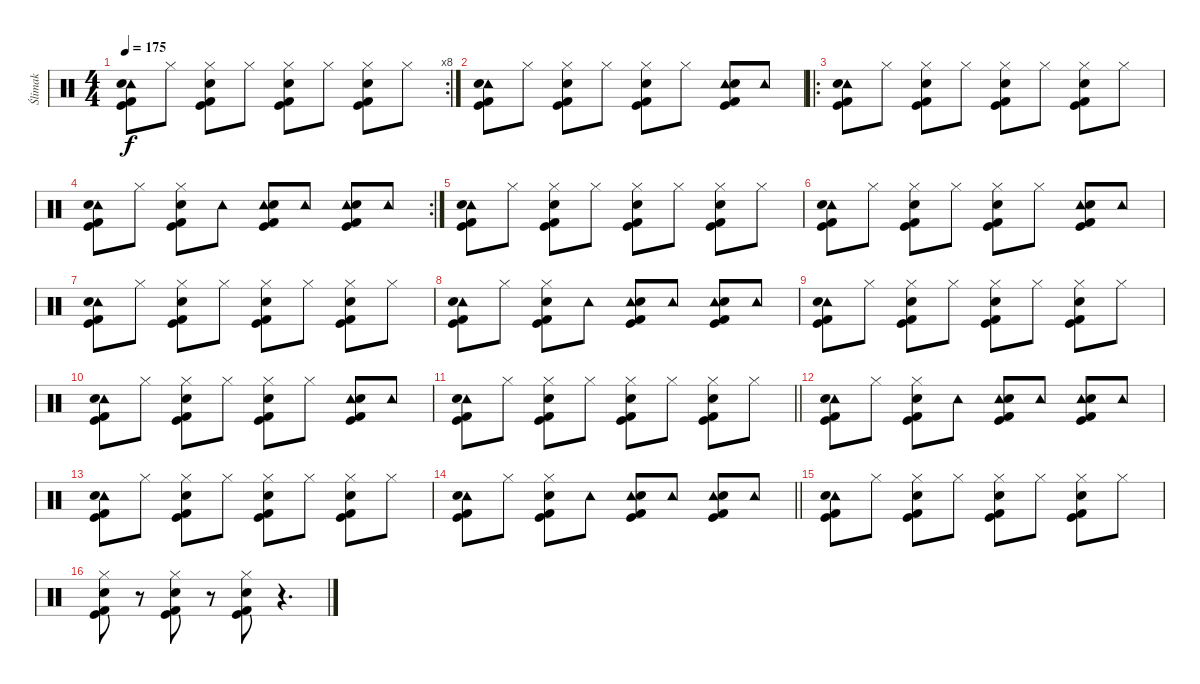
\track ("Ślimak" "Ślimak") {instrument percussion}
\staff {score}
\articulation defaults
\rc 8
\ts (4 4)
\tempo 175
\clef neutral
\ks c
("Tambourine (hit)" "Electric Snare (hit)" "Kick (hit) 2" "Kick (hit)").8{dy f} "Hi-Hat (closed)".8 ("Hi-Hat (closed)" "Electric Snare (hit)" "Kick (hit) 2" "Kick (hit)").8 "Hi-Hat (closed)".8 ("Hi-Hat (closed)" "Electric Snare (hit)" "Kick (hit) 2" "Kick (hit)").8 "Hi-Hat (closed)".8 ("Hi-Hat (closed)" "Electric Snare (hit)" "Kick (hit) 2" "Kick (hit)").8 "Hi-Hat (closed)".8 |
("Tambourine (hit)" "Electric Snare (hit)" "Kick (hit) 2" "Kick (hit)").8 "Hi-Hat (closed)".8 ("Hi-Hat (closed)" "Electric Snare (hit)" "Kick (hit) 2" "Kick (hit)").8 "Hi-Hat (closed)".8 ("Hi-Hat (closed)" "Electric Snare (hit)" "Kick (hit) 2" "Kick (hit)").8 "Hi-Hat (closed)".8 ("Tambourine (hit)" "Electric Snare (hit)" "Kick (hit) 2" "Kick (hit)").8 "Tambourine (hit)".8 |
\ro
("Tambourine (hit)" "Electric Snare (hit)" "Kick (hit) 2" "Kick (hit)").8 "Hi-Hat (closed)".8 ("Hi-Hat (closed)" "Electric Snare (hit)" "Kick (hit) 2" "Kick (hit)").8 "Hi-Hat (closed)".8 ("Hi-Hat (closed)" "Electric Snare (hit)" "Kick (hit) 2" "Kick (hit)").8 "Hi-Hat (closed)".8 ("Hi-Hat (closed)" "Electric Snare (hit)" "Kick (hit) 2" "Kick (hit)").8 "Hi-Hat (closed)".8 |
\rc 2
("Tambourine (hit)" "Electric Snare (hit)" "Kick (hit) 2" "Kick (hit)").8 "Hi-Hat (closed)".8 ("Hi-Hat (closed)" "Electric Snare (hit)" "Kick (hit) 2" "Kick (hit)").8 "Tambourine (hit)".8 ("Tambourine (hit)" "Electric Snare (hit)" "Kick (hit) 2" "Kick (hit)").8 "Tambourine (hit)".8 ("Tambourine (hit)" "Electric Snare (hit)" "Kick (hit) 2" "Kick (hit)").8 "Tambourine (hit)".8 |
("Tambourine (hit)" "Electric Snare (hit)" "Kick (hit) 2" "Kick (hit)").8 "Hi-Hat (closed)".8 ("Hi-Hat (closed)" "Electric Snare (hit)" "Kick (hit) 2" "Kick (hit)").8 "Hi-Hat (closed)".8 ("Hi-Hat (closed)" "Electric Snare (hit)" "Kick (hit) 2" "Kick (hit)").8 "Hi-Hat (closed)".8 ("Hi-Hat (closed)" "Electric Snare (hit)" "Kick (hit) 2" "Kick (hit)").8 "Hi-Hat (closed)".8 |
("Tambourine (hit)" "Electric Snare (hit)" "Kick (hit) 2" "Kick (hit)").8 "Hi-Hat (closed)".8 ("Hi-Hat (closed)" "Electric Snare (hit)" "Kick (hit) 2" "Kick (hit)").8 "Hi-Hat (closed)".8 ("Hi-Hat (closed)" "Electric Snare (hit)" "Kick (hit) 2" "Kick (hit)").8 "Hi-Hat (closed)".8 ("Tambourine (hit)" "Electric Snare (hit)" "Kick (hit) 2" "Kick (hit)").8 "Tambourine (hit)".8 |
("Tambourine (hit)" "Electric Snare (hit)" "Kick (hit) 2" "Kick (hit)").8 "Hi-Hat (closed)".8 ("Hi-Hat (closed)" "Electric Snare (hit)" "Kick (hit) 2" "Kick (hit)").8 "Hi-Hat (closed)".8 ("Hi-Hat (closed)" "Electric Snare (hit)" "Kick (hit) 2" "Kick (hit)").8 "Hi-Hat (closed)".8 ("Hi-Hat (closed)" "Electric Snare (hit)" "Kick (hit) 2" "Kick (hit)").8 "Hi-Hat (closed)".8 |
("Tambourine (hit)" "Electric Snare (hit)" "Kick (hit) 2" "Kick (hit)").8 "Hi-Hat (closed)".8 ("Hi-Hat (closed)" "Electric Snare (hit)" "Kick (hit) 2" "Kick (hit)").8 "Tambourine (hit)".8 ("Tambourine (hit)" "Electric Snare (hit)" "Kick (hit) 2" "Kick (hit)").8 "Tambourine (hit)".8 ("Tambourine (hit)" "Electric Snare (hit)" "Kick (hit) 2" "Kick (hit)").8 "Tambourine (hit)".8 |
("Tambourine (hit)" "Electric Snare (hit)" "Kick (hit) 2" "Kick (hit)").8 "Hi-Hat (closed)".8 ("Hi-Hat (closed)" "Electric Snare (hit)" "Kick (hit) 2" "Kick (hit)").8 "Hi-Hat (closed)".8 ("Hi-Hat (closed)" "Electric Snare (hit)" "Kick (hit) 2" "Kick (hit)").8 "Hi-Hat (closed)".8 ("Hi-Hat (closed)" "Electric Snare (hit)" "Kick (hit) 2" "Kick (hit)").8 "Hi-Hat (closed)".8 |
("Tambourine (hit)" "Electric Snare (hit)" "Kick (hit) 2" "Kick (hit)").8 "Hi-Hat (closed)".8 ("Hi-Hat (closed)" "Electric Snare (hit)" "Kick (hit) 2" "Kick (hit)").8 "Hi-Hat (closed)".8 ("Hi-Hat (closed)" "Electric Snare (hit)" "Kick (hit) 2" "Kick (hit)").8 "Hi-Hat (closed)".8 ("Tambourine (hit)" "Electric Snare (hit)" "Kick (hit) 2" "Kick (hit)").8 "Tambourine (hit)".8 |
\barLineRight lightlight
("Tambourine (hit)" "Electric Snare (hit)" "Kick (hit) 2" "Kick (hit)").8 "Hi-Hat (closed)".8 ("Hi-Hat (closed)" "Electric Snare (hit)" "Kick (hit) 2" "Kick (hit)").8 "Hi-Hat (closed)".8 ("Hi-Hat (closed)" "Electric Snare (hit)" "Kick (hit) 2" "Kick (hit)").8 "Hi-Hat (closed)".8 ("Hi-Hat (closed)" "Electric Snare (hit)" "Kick (hit) 2" "Kick (hit)").8 "Hi-Hat (closed)".8 |
("Tambourine (hit)" "Electric Snare (hit)" "Kick (hit) 2" "Kick (hit)").8 "Hi-Hat (closed)".8 ("Hi-Hat (closed)" "Electric Snare (hit)" "Kick (hit) 2" "Kick (hit)").8 "Tambourine (hit)".8 ("Tambourine (hit)" "Electric Snare (hit)" "Kick (hit) 2" "Kick (hit)").8 "Tambourine (hit)".8 ("Tambourine (hit)" "Electric Snare (hit)" "Kick (hit) 2" "Kick (hit)").8 "Tambourine (hit)".8 |
("Tambourine (hit)" "Electric Snare (hit)" "Kick (hit) 2" "Kick (hit)").8 "Hi-Hat (closed)".8 ("Hi-Hat (closed)" "Electric Snare (hit)" "Kick (hit) 2" "Kick (hit)").8 "Hi-Hat (closed)".8 ("Hi-Hat (closed)" "Electric Snare (hit)" "Kick (hit) 2" "Kick (hit)").8 "Hi-Hat (closed)".8 ("Hi-Hat (closed)" "Electric Snare (hit)" "Kick (hit) 2" "Kick (hit)").8 "Hi-Hat (closed)".8 |
\barLineRight lightlight
("Tambourine (hit)" "Electric Snare (hit)" "Kick (hit) 2" "Kick (hit)").8 "Hi-Hat (closed)".8 ("Hi-Hat (closed)" "Electric Snare (hit)" "Kick (hit) 2" "Kick (hit)").8 "Tambourine (hit)".8 ("Tambourine (hit)" "Electric Snare (hit)" "Kick (hit) 2" "Kick (hit)").8 "Tambourine (hit)".8 ("Tambourine (hit)" "Electric Snare (hit)" "Kick (hit) 2" "Kick (hit)").8 "Tambourine (hit)".8 |
("Tambourine (hit)" "Electric Snare (hit)" "Kick (hit) 2" "Kick (hit)").8 "Hi-Hat (closed)".8 ("Hi-Hat (closed)" "Electric Snare (hit)" "Kick (hit) 2" "Kick (hit)").8 "Hi-Hat (closed)".8 ("Hi-Hat (closed)" "Electric Snare (hit)" "Kick (hit) 2" "Kick (hit)").8 "Hi-Hat (closed)".8 ("Hi-Hat (closed)" "Electric Snare (hit)" "Kick (hit) 2" "Kick (hit)").8 "Hi-Hat (closed)".8 |
("Hi-Hat (closed)" "Electric Snare (hit)" "Kick (hit) 2" "Kick (hit)").8 r.8 ("Hi-Hat (closed)" "Electric Snare (hit)" "Kick (hit) 2" "Kick (hit)").8 r.8 ("Hi-Hat (closed)" "Electric Snare (hit)" "Kick (hit) 2" "Kick (hit)").8 r.4{d}
